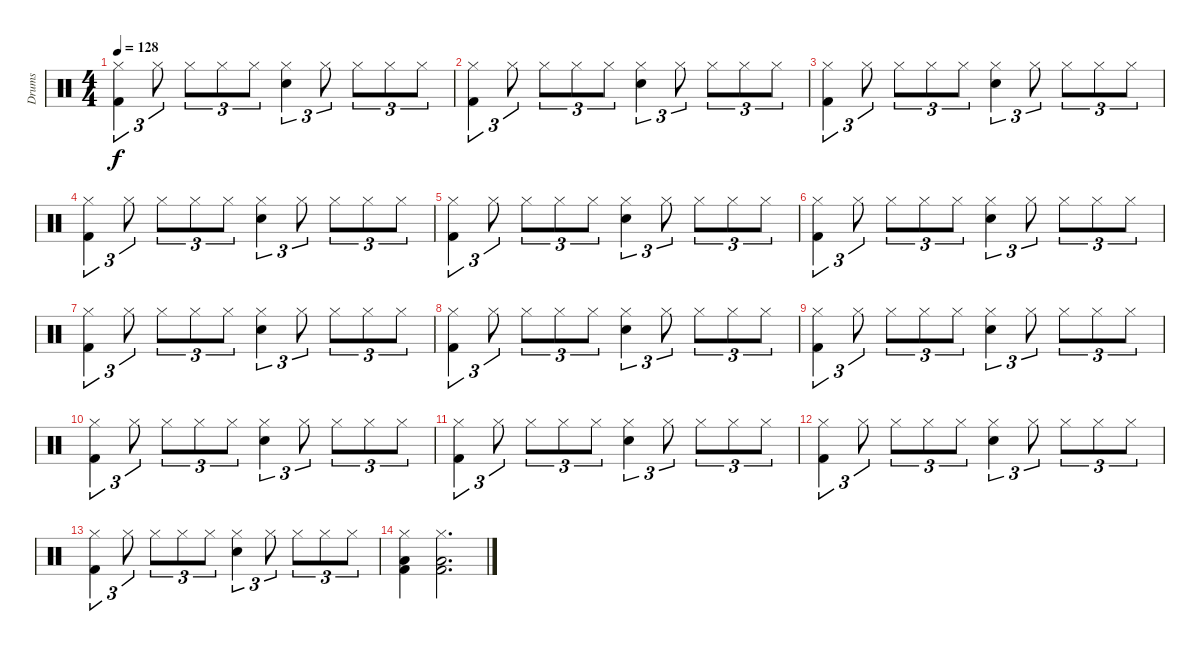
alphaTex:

\track ("Drums" "Drums") {instrument percussion}
\staff {score}
\articulation defaults
\ts (4 4)
\tempo 128
\clef neutral
\ks c
("Hi-Hat (closed)" "Kick (hit) 2").4{tu (3 2) dy f} "Hi-Hat (closed)".8{tu (3 2)} "Hi-Hat (closed)".8{tu (3 2)} "Hi-Hat (closed)".8{tu (3 2)} "Hi-Hat (closed)".8{tu (3 2)} ("Hi-Hat (closed)" "Electric Snare (hit)").4{tu (3 2)} "Hi-Hat (closed)".8{tu (3 2)} "Hi-Hat (closed)".8{tu (3 2)} "Hi-Hat (closed)".8{tu (3 2)} "Hi-Hat (closed)".8{tu (3 2)} |
("Hi-Hat (closed)" "Kick (hit) 2").4{tu (3 2)} "Hi-Hat (closed)".8{tu (3 2)} "Hi-Hat (closed)".8{tu (3 2)} "Hi-Hat (closed)".8{tu (3 2)} "Hi-Hat (closed)".8{tu (3 2)} ("Hi-Hat (closed)" "Electric Snare (hit)").4{tu (3 2)} "Hi-Hat (closed)".8{tu (3 2)} "Hi-Hat (closed)".8{tu (3 2)} "Hi-Hat (closed)".8{tu (3 2)} "Hi-Hat (closed)".8{tu (3 2)} |
("Hi-Hat (closed)" "Kick (hit) 2").4{tu (3 2)} "Hi-Hat (closed)".8{tu (3 2)} "Hi-Hat (closed)".8{tu (3 2)} "Hi-Hat (closed)".8{tu (3 2)} "Hi-Hat (closed)".8{tu (3 2)} ("Hi-Hat (closed)" "Electric Snare (hit)").4{tu (3 2)} "Hi-Hat (closed)".8{tu (3 2)} "Hi-Hat (closed)".8{tu (3 2)} "Hi-Hat (closed)".8{tu (3 2)} "Hi-Hat (closed)".8{tu (3 2)} |
("Hi-Hat (closed)" "Kick (hit) 2").4{tu (3 2)} "Hi-Hat (closed)".8{tu (3 2)} "Hi-Hat (closed)".8{tu (3 2)} "Hi-Hat (closed)".8{tu (3 2)} "Hi-Hat (closed)".8{tu (3 2)} ("Hi-Hat (closed)" "Electric Snare (hit)").4{tu (3 2)} "Hi-Hat (closed)".8{tu (3 2)} "Hi-Hat (closed)".8{tu (3 2)} "Hi-Hat (closed)".8{tu (3 2)} "Hi-Hat (closed)".8{tu (3 2)} |
("Hi-Hat (closed)" "Kick (hit) 2").4{tu (3 2)} "Hi-Hat (closed)".8{tu (3 2)} "Hi-Hat (closed)".8{tu (3 2)} "Hi-Hat (closed)".8{tu (3 2)} "Hi-Hat (closed)".8{tu (3 2)} ("Hi-Hat (closed)" "Electric Snare (hit)").4{tu (3 2)} "Hi-Hat (closed)".8{tu (3 2)} "Hi-Hat (closed)".8{tu (3 2)} "Hi-Hat (closed)".8{tu (3 2)} "Hi-Hat (closed)".8{tu (3 2)} |
("Hi-Hat (closed)" "Kick (hit) 2").4{tu (3 2)} "Hi-Hat (closed)".8{tu (3 2)} "Hi-Hat (closed)".8{tu (3 2)} "Hi-Hat (closed)".8{tu (3 2)} "Hi-Hat (closed)".8{tu (3 2)} ("Hi-Hat (closed)" "Electric Snare (hit)").4{tu (3 2)} "Hi-Hat (closed)".8{tu (3 2)} "Hi-Hat (closed)".8{tu (3 2)} "Hi-Hat (closed)".8{tu (3 2)} "Hi-Hat (closed)".8{tu (3 2)} |
("Hi-Hat (closed)" "Kick (hit) 2").4{tu (3 2)} "Hi-Hat (closed)".8{tu (3 2)} "Hi-Hat (closed)".8{tu (3 2)} "Hi-Hat (closed)".8{tu (3 2)} "Hi-Hat (closed)".8{tu (3 2)} ("Hi-Hat (closed)" "Electric Snare (hit)").4{tu (3 2)} "Hi-Hat (closed)".8{tu (3 2)} "Hi-Hat (closed)".8{tu (3 2)} "Hi-Hat (closed)".8{tu (3 2)} "Hi-Hat (closed)".8{tu (3 2)} |
("Hi-Hat (closed)" "Kick (hit) 2").4{tu (3 2)} "Hi-Hat (closed)".8{tu (3 2)} "Hi-Hat (closed)".8{tu (3 2)} "Hi-Hat (closed)".8{tu (3 2)} "Hi-Hat (closed)".8{tu (3 2)} ("Hi-Hat (closed)" "Electric Snare (hit)").4{tu (3 2)} "Hi-Hat (closed)".8{tu (3 2)} "Hi-Hat (closed)".8{tu (3 2)} "Hi-Hat (closed)".8{tu (3 2)} "Hi-Hat (closed)".8{tu (3 2)} |
("Hi-Hat (closed)" "Kick (hit) 2").4{tu (3 2)} "Hi-Hat (closed)".8{tu (3 2)} "Hi-Hat (closed)".8{tu (3 2)} "Hi-Hat (closed)".8{tu (3 2)} "Hi-Hat (closed)".8{tu (3 2)} ("Hi-Hat (closed)" "Electric Snare (hit)").4{tu (3 2)} "Hi-Hat (closed)".8{tu (3 2)} "Hi-Hat (closed)".8{tu (3 2)} "Hi-Hat (closed)".8{tu (3 2)} "Hi-Hat (closed)".8{tu (3 2)} |
("Hi-Hat (closed)" "Kick (hit) 2").4{tu (3 2)} "Hi-Hat (closed)".8{tu (3 2)} "Hi-Hat (closed)".8{tu (3 2)} "Hi-Hat (closed)".8{tu (3 2)} "Hi-Hat (closed)".8{tu (3 2)} ("Hi-Hat (closed)" "Electric Snare (hit)").4{tu (3 2)} "Hi-Hat (closed)".8{tu (3 2)} "Hi-Hat (closed)".8{tu (3 2)} "Hi-Hat (closed)".8{tu (3 2)} "Hi-Hat (closed)".8{tu (3 2)} |
("Hi-Hat (closed)" "Kick (hit) 2").4{tu (3 2)} "Hi-Hat (closed)".8{tu (3 2)} "Hi-Hat (closed)".8{tu (3 2)} "Hi-Hat (closed)".8{tu (3 2)} "Hi-Hat (closed)".8{tu (3 2)} ("Hi-Hat (closed)" "Electric Snare (hit)").4{tu (3 2)} "Hi-Hat (closed)".8{tu (3 2)} "Hi-Hat (closed)".8{tu (3 2)} "Hi-Hat (closed)".8{tu (3 2)} "Hi-Hat (closed)".8{tu (3 2)} |
("Hi-Hat (closed)" "Kick (hit) 2").4{tu (3 2)} "Hi-Hat (closed)".8{tu (3 2)} "Hi-Hat (closed)".8{tu (3 2)} "Hi-Hat (closed)".8{tu (3 2)} "Hi-Hat (closed)".8{tu (3 2)} ("Hi-Hat (closed)" "Electric Snare (hit)").4{tu (3 2)} "Hi-Hat (closed)".8{tu (3 2)} "Hi-Hat (closed)".8{tu (3 2)} "Hi-Hat (closed)".8{tu (3 2)} "Hi-Hat (closed)".8{tu (3 2)} |
("Hi-Hat (closed)" "Kick (hit) 2").4{tu (3 2)} "Hi-Hat (closed)".8{tu (3 2)} "Hi-Hat (closed)".8{tu (3 2)} "Hi-Hat (closed)".8{tu (3 2)} "Hi-Hat (closed)".8{tu (3 2)} ("Hi-Hat (closed)" "Electric Snare (hit)").4{tu (3 2)} "Hi-Hat (closed)".8{tu (3 2)} "Hi-Hat (closed)".8{tu (3 2)} "Hi-Hat (closed)".8{tu (3 2)} "Hi-Hat (closed)".8{tu (3 2)} |
("Hi-Hat (closed)" "Low Floor Tom (hit)" "Kick (hit) 2").4 ("Hi-Hat (closed)" "Low Floor Tom (hit)" "Kick (hit) 2").2{d}
